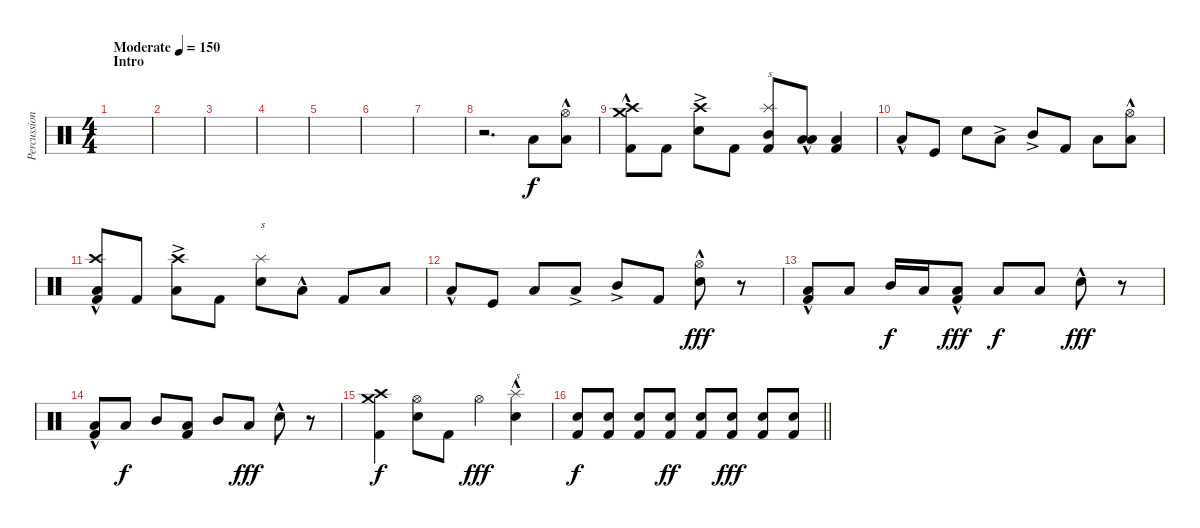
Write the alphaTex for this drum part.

\track ("Percussion" "Percussion") {instrument percussion}
\staff {score}
\articulation defaults
\ts (4 4)
\section ("" "Intro")
\tempo (150 "Moderate")
\clef neutral
\ks c
|
|
|
|
|
|
|
r.2{d} "Low Floor Tom (hit)".8 ("Hi-Hat (open)"{hac} "Low Floor Tom (hit)"{hac}).8 |
("Crash high (hit)"{hac} "Crash medium (hit)"{hac} "Kick (hit) 2").8 "Kick (hit) 2".8 ("Crash high (hit)" "Electric Snare (hit)"{ac}).8 "Kick (hit) 2".8 ("Splash (hit)" "Mid Tom (hit)" "Kick (hit) 2").8{txt "s"} ("Low Tom (hit)"{hac} "Low Tom (hit)"{hac}).8 ("Low Floor Tom (hit)" "Kick (hit) 2").4 |
"Low Floor Tom (hit)"{hac}.8 "Kick (hit)".8 "Electric Snare (hit)".8 "Low Tom (hit)"{ac}.8 "Mid Tom (hit)"{ac}.8 "Kick (hit) 2".8 "Low Floor Tom (hit)".8 ("Hi-Hat (open)"{hac} "Low Floor Tom (hit)"{hac}).8 |
("Crash high (hit)"{hac} "Low Floor Tom (hit)" "Kick (hit) 2").8 "Kick (hit) 2".8 ("Crash high (hit)" "Low Tom (hit)"{ac}).8 "Kick (hit) 2".8 ("Splash (hit)" "Electric Snare (hit)").8{txt "s"} "Low Floor Tom (hit)"{hac}.8 "Kick (hit) 2".8 "Low Floor Tom (hit)".8 |
"Low Floor Tom (hit)"{hac}.8 "Kick (hit)".8 "Low Floor Tom (hit)".8 "Low Tom (hit)"{ac}.8 "Mid Tom (hit)"{ac}.8 "Kick (hit) 2".8 ("Hi-Hat (open)"{hac} "Electric Snare (hit)"{hac}).8{dy fff} r.8 |
("Low Tom (hit)"{hac} "Kick (hit) 2").8 "Low Tom (hit)".8 "Mid Tom (hit)".16{dy f} "Low Tom (hit)".16 ("Low Tom (hit)"{hac} "Kick (hit) 2").8{dy fff} "Low Tom (hit)".8{dy f} "Low Tom (hit)".8 "Electric Snare (hit)"{hac}.8{dy fff} r.8 |
("Low Tom (hit)"{hac} "Kick (hit) 2").8 "Low Tom (hit)".8{dy f} "Mid Tom (hit)".8 ("Low Tom (hit)" "Kick (hit) 2").8 "Mid Tom (hit)".8 "Low Tom (hit)".8{dy fff} "Electric Snare (hit)"{hac}.8 r.8 |
("Crash high (hit)" "Crash medium (hit)" "Kick (hit) 2").4{dy f} ("Hi-Hat (open)" "Electric Snare (hit)").8 "Kick (hit) 2".8 "Hi-Hat (open)".4{dy fff} ("Splash (hit)"{hac} "Electric Snare (hit)").4{txt "s"} |
\barLineRight lightlight
("Snare (hit) 2" "Kick (hit) 2").8{dy f volume 4} ("Snare (hit) 2" "Kick (hit) 2").8{volume 12} ("Snare (hit) 2" "Kick (hit) 2").8 ("Snare (hit) 2" "Kick (hit) 2").8{dy ff} ("Snare (hit) 2" "Kick (hit) 2").8 ("Snare (hit) 2" "Kick (hit) 2").8{dy fff} ("Snare (hit) 2" "Kick (hit) 2").8 ("Snare (hit) 2" "Kick (hit) 2").8
